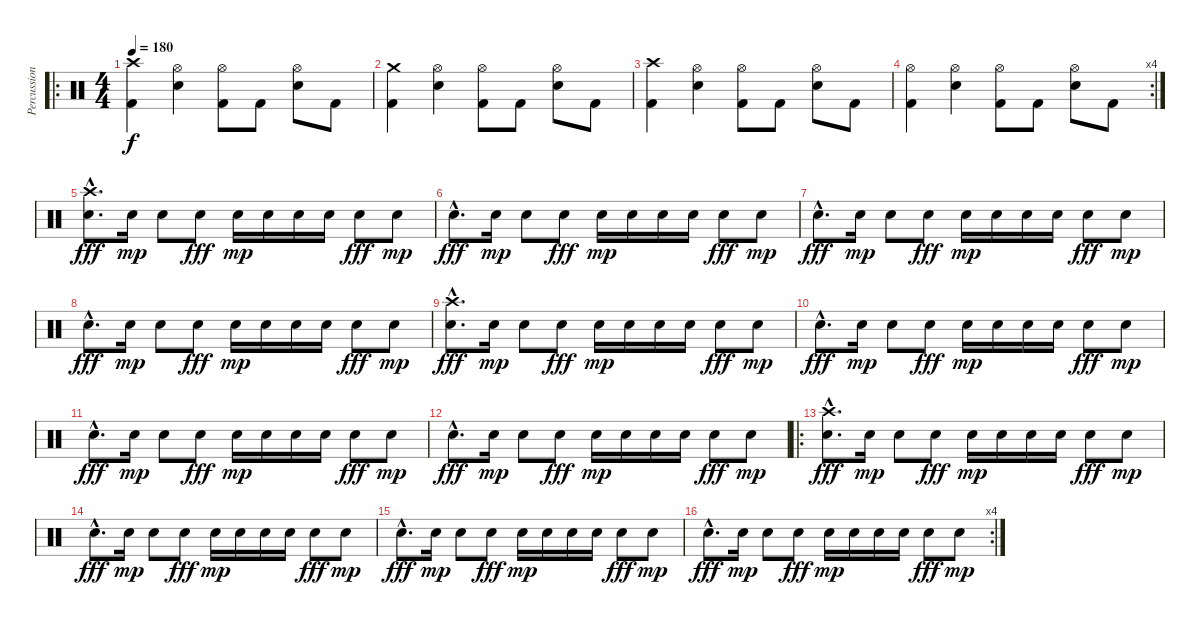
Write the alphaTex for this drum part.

\track ("Percussion" "Percussion") {instrument percussion}
\staff {score}
\articulation defaults
\ro
\ts (4 4)
\tempo 180
\clef neutral
\ks c
("Crash high (hit)" "Kick (hit) 2").4{dy f volume 13} ("Hi-Hat (open)" "Electric Snare (hit)").4 ("Hi-Hat (open)" "Kick (hit) 2").8 "Kick (hit) 2".8 ("Hi-Hat (open)" "Electric Snare (hit)").8 "Kick (hit) 2".8 |
("Crash medium (hit)" "Kick (hit) 2").4 ("Hi-Hat (open)" "Electric Snare (hit)").4 ("Hi-Hat (open)" "Kick (hit) 2").8 "Kick (hit) 2".8 ("Hi-Hat (open)" "Electric Snare (hit)").8 "Kick (hit) 2".8 |
("Crash high (hit)" "Kick (hit) 2").4 ("Hi-Hat (open)" "Electric Snare (hit)").4 ("Hi-Hat (open)" "Kick (hit) 2").8 "Kick (hit) 2".8 ("Hi-Hat (open)" "Electric Snare (hit)").8 "Kick (hit) 2".8 |
\rc 4
("Hi-Hat (open)" "Kick (hit) 2").4 ("Hi-Hat (open)" "Electric Snare (hit)").4 ("Hi-Hat (open)" "Kick (hit) 2").8 "Kick (hit) 2".8 ("Hi-Hat (open)" "Electric Snare (hit)").8 "Kick (hit) 2".8 |
("Crash high (hit)"{hac} "Electric Snare (hit)"{hac}).8{d dy fff} "Electric Snare (hit)".16{dy mp} "Electric Snare (hit)".8 "Electric Snare (hit)".8{dy fff} "Electric Snare (hit)".16{dy mp} "Electric Snare (hit)".16 "Electric Snare (hit)".16 "Electric Snare (hit)".16 "Electric Snare (hit)".8{dy fff} "Electric Snare (hit)".8{dy mp} |
"Electric Snare (hit)"{hac}.8{d dy fff} "Electric Snare (hit)".16{dy mp} "Electric Snare (hit)".8 "Electric Snare (hit)".8{dy fff} "Electric Snare (hit)".16{dy mp} "Electric Snare (hit)".16 "Electric Snare (hit)".16 "Electric Snare (hit)".16 "Electric Snare (hit)".8{dy fff} "Electric Snare (hit)".8{dy mp} |
"Electric Snare (hit)"{hac}.8{d dy fff} "Electric Snare (hit)".16{dy mp} "Electric Snare (hit)".8 "Electric Snare (hit)".8{dy fff} "Electric Snare (hit)".16{dy mp} "Electric Snare (hit)".16 "Electric Snare (hit)".16 "Electric Snare (hit)".16 "Electric Snare (hit)".8{dy fff} "Electric Snare (hit)".8{dy mp} |
"Electric Snare (hit)"{hac}.8{d dy fff} "Electric Snare (hit)".16{dy mp} "Electric Snare (hit)".8 "Electric Snare (hit)".8{dy fff} "Electric Snare (hit)".16{dy mp} "Electric Snare (hit)".16 "Electric Snare (hit)".16 "Electric Snare (hit)".16 "Electric Snare (hit)".8{dy fff} "Electric Snare (hit)".8{dy mp} |
("Crash high (hit)"{hac} "Electric Snare (hit)"{hac}).8{d dy fff} "Electric Snare (hit)".16{dy mp} "Electric Snare (hit)".8 "Electric Snare (hit)".8{dy fff} "Electric Snare (hit)".16{dy mp} "Electric Snare (hit)".16 "Electric Snare (hit)".16 "Electric Snare (hit)".16 "Electric Snare (hit)".8{dy fff} "Electric Snare (hit)".8{dy mp} |
"Electric Snare (hit)"{hac}.8{d dy fff} "Electric Snare (hit)".16{dy mp} "Electric Snare (hit)".8 "Electric Snare (hit)".8{dy fff} "Electric Snare (hit)".16{dy mp} "Electric Snare (hit)".16 "Electric Snare (hit)".16 "Electric Snare (hit)".16 "Electric Snare (hit)".8{dy fff} "Electric Snare (hit)".8{dy mp} |
"Electric Snare (hit)"{hac}.8{d dy fff} "Electric Snare (hit)".16{dy mp} "Electric Snare (hit)".8 "Electric Snare (hit)".8{dy fff} "Electric Snare (hit)".16{dy mp} "Electric Snare (hit)".16 "Electric Snare (hit)".16 "Electric Snare (hit)".16 "Electric Snare (hit)".8{dy fff} "Electric Snare (hit)".8{dy mp} |
"Electric Snare (hit)"{hac}.8{d dy fff} "Electric Snare (hit)".16{dy mp} "Electric Snare (hit)".8 "Electric Snare (hit)".8{dy fff} "Electric Snare (hit)".16{dy mp} "Electric Snare (hit)".16 "Electric Snare (hit)".16 "Electric Snare (hit)".16 "Electric Snare (hit)".8{dy fff} "Electric Snare (hit)".8{dy mp} |
\ro
("Crash high (hit)"{hac} "Electric Snare (hit)"{hac}).8{d dy fff} "Electric Snare (hit)".16{dy mp} "Electric Snare (hit)".8 "Electric Snare (hit)".8{dy fff} "Electric Snare (hit)".16{dy mp} "Electric Snare (hit)".16 "Electric Snare (hit)".16 "Electric Snare (hit)".16 "Electric Snare (hit)".8{dy fff} "Electric Snare (hit)".8{dy mp} |
"Electric Snare (hit)"{hac}.8{d dy fff} "Electric Snare (hit)".16{dy mp} "Electric Snare (hit)".8 "Electric Snare (hit)".8{dy fff} "Electric Snare (hit)".16{dy mp} "Electric Snare (hit)".16 "Electric Snare (hit)".16 "Electric Snare (hit)".16 "Electric Snare (hit)".8{dy fff} "Electric Snare (hit)".8{dy mp} |
"Electric Snare (hit)"{hac}.8{d dy fff} "Electric Snare (hit)".16{dy mp} "Electric Snare (hit)".8 "Electric Snare (hit)".8{dy fff} "Electric Snare (hit)".16{dy mp} "Electric Snare (hit)".16 "Electric Snare (hit)".16 "Electric Snare (hit)".16 "Electric Snare (hit)".8{dy fff} "Electric Snare (hit)".8{dy mp} |
\rc 4 "Electric Snare (hit)"{hac}.8{d dy fff} "Electric Snare (hit)".16{dy mp} "Electric Snare (hit)".8 "Electric Snare (hit)".8{dy fff} "Electric Snare (hit)".16{dy mp} "Electric Snare (hit)".16 "Electric Snare (hit)".16 "Electric Snare (hit)".16 "Electric Snare (hit)".8{dy fff} "Electric Snare (hit)".8{dy mp}
